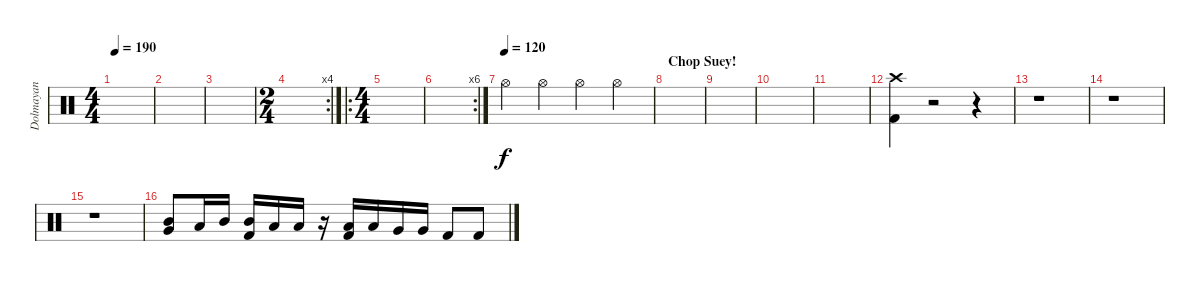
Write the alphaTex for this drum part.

\track ("Dolmayan" "Dolmayan") {instrument percussion}
\staff {score}
\articulation defaults
\ts (4 4)
\tempo 190
\clef neutral
\ks c
|
|
|
\rc 4
\ts (2 4)
|
\ro
\ts (4 4)
|
\rc 6
|
\tempo (120)
"Hi-Hat (open)".4 "Hi-Hat (open)".4 "Hi-Hat (open)".4 "Hi-Hat (open)".4 |
\section ("" "Chop Suey!")
|
|
|
|
("Crash high (hit)" "Kick (hit) 2").4 r.2 r.4 |
r.1 |
r.1 |
r.1 |
("Mid Tom (hit)" "Very Low Tom (hit)").8 "Low Tom (hit)".16 "Mid Tom (hit)".16 ("Mid Tom (hit)" "Kick (hit) 2").16 "Low Tom (hit)".16 "Low Tom (hit)".16 r.16 ("Low Tom (hit)" "Kick (hit) 2").16 "Low Tom (hit)".16 "Very Low Tom (hit)".16 "Very Low Tom (hit)".16 "Kick (hit) 2".8 "Kick (hit) 2".8
